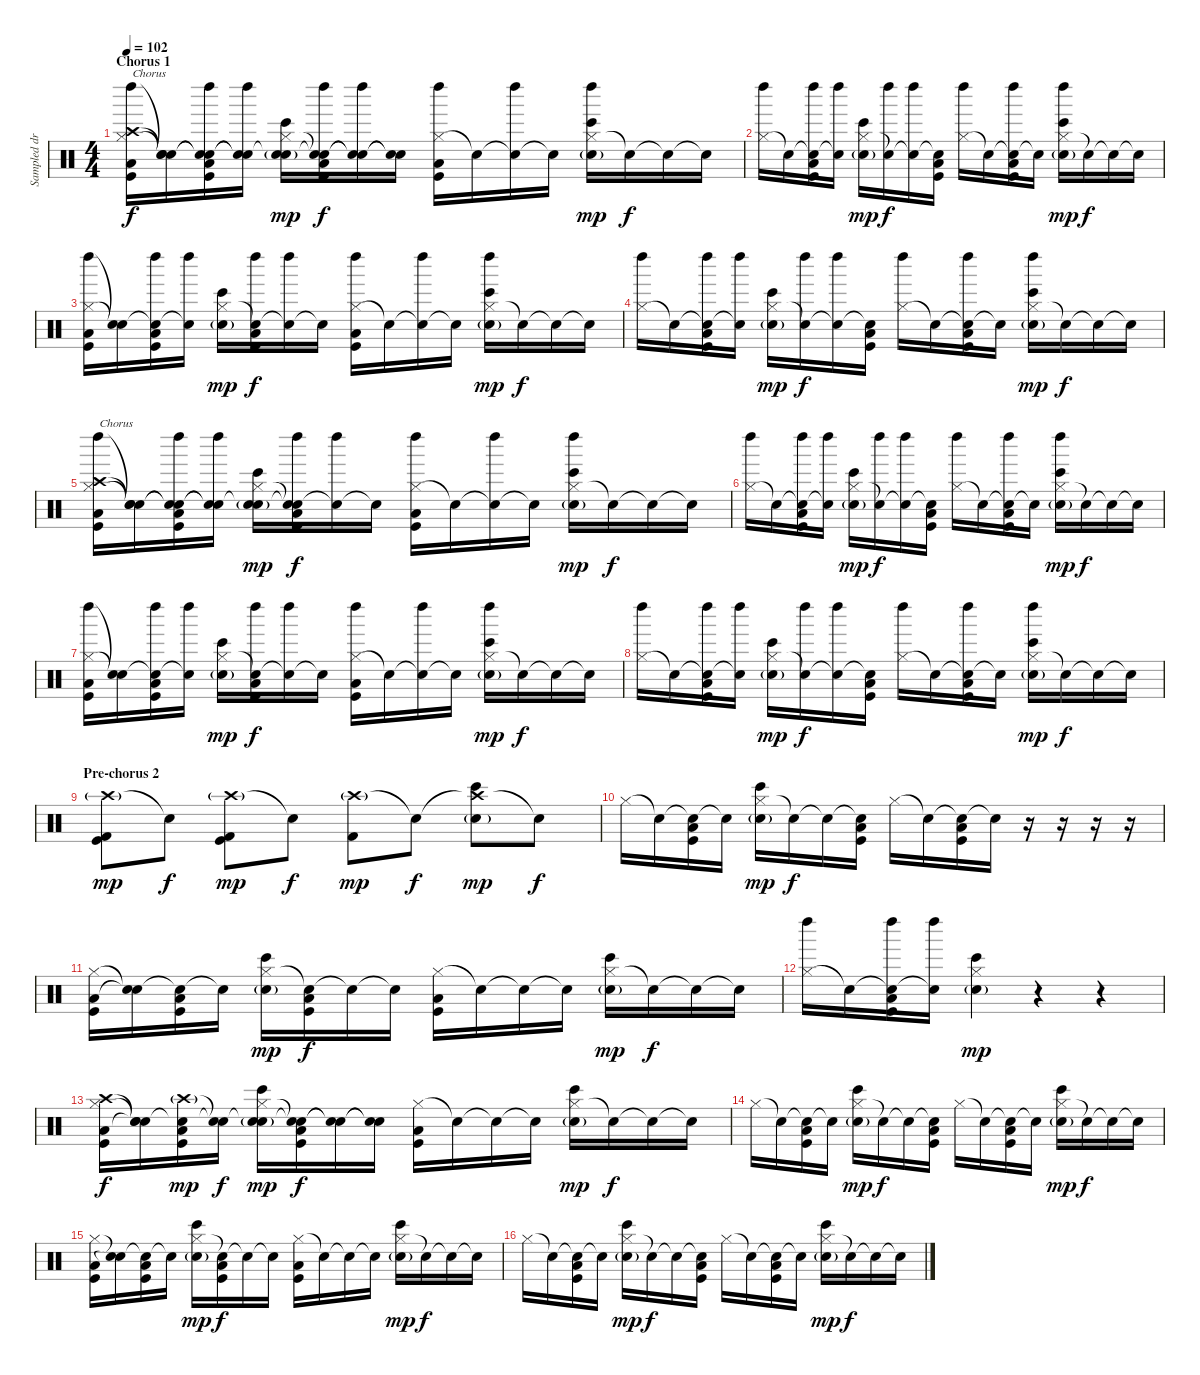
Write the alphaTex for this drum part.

\track ("Sampled drums (Rob and Joe)" "Sampled dr") {instrument percussion}
\staff {score}
\articulation defaults
\ts (4 4)
\section ("" "Chorus 1")
\tempo 102
\clef neutral
\ks c
("Crash high (hit)" "Hi-Hat (closed)" "Left Maraca (hit)" "Low Floor Tom (hit)" "Kick (hit)").16{txt "Chorus" dy f} ("Snare (hit)"{t} "Snare (hit)"{t} "Snare (hit)"{t}).16 ("Snare (hit)"{t} "Snare (hit)"{t} "Left Maraca (hit)" "Low Floor Tom (hit)" "Kick (hit)").16 ("Snare (hit)"{t} "Snare (hit)"{t} "Left Maraca (hit)").16 ("Snare (hit)"{t} "Hi-Hat (closed)" "Bongo High (hit)" "Electric Snare (hit)"{g}).16{dy mp} ("Snare (hit)"{t} "Snare (hit)"{t} "Left Maraca (hit)" "Low Floor Tom (hit)" "Kick (hit)").16{dy f} ("Snare (hit)"{t} "Snare (hit)"{t} "Left Maraca (hit)").16 ("Snare (hit)"{t} "Snare (hit)"{t}).16 ("Hi-Hat (closed)" "Left Maraca (hit)" "Low Floor Tom (hit)" "Kick (hit)").16 "Snare (hit)"{t}.16 ("Snare (hit)"{t} "Left Maraca (hit)").16 "Snare (hit)"{t}.16 ("Hi-Hat (closed)" "Left Maraca (hit)" "Bongo High (hit)" "Electric Snare (hit)"{g}).16{dy mp} "Snare (hit)"{t}.16{dy f} "Snare (hit)"{t}.16 "Snare (hit)"{t}.16 |
("Hi-Hat (closed)" "Left Maraca (hit)").16 "Snare (hit)"{t}.16 ("Snare (hit)"{t} "Left Maraca (hit)" "Low Floor Tom (hit)" "Kick (hit)").16 ("Snare (hit)"{t} "Left Maraca (hit)").16 ("Hi-Hat (closed)" "Bongo High (hit)" "Electric Snare (hit)"{g}).16{dy mp} ("Snare (hit)"{t} "Left Maraca (hit)").16{dy f} ("Snare (hit)"{t} "Left Maraca (hit)").16 ("Snare (hit)"{t} "Low Floor Tom (hit)" "Kick (hit)").16 ("Hi-Hat (closed)" "Left Maraca (hit)").16 "Snare (hit)"{t}.16 ("Snare (hit)"{t} "Left Maraca (hit)" "Low Floor Tom (hit)" "Kick (hit)").16 "Snare (hit)"{t}.16 ("Hi-Hat (closed)" "Left Maraca (hit)" "Bongo High (hit)" "Electric Snare (hit)"{g}).16{dy mp} "Snare (hit)"{t}.16{dy f} "Snare (hit)"{t}.16 "Snare (hit)"{t}.16 |
("Hi-Hat (closed)" "Left Maraca (hit)" "Low Floor Tom (hit)" "Kick (hit)").16 ("Snare (hit)"{t} "Snare (hit)"{t}).16 ("Snare (hit)"{t} "Left Maraca (hit)" "Low Floor Tom (hit)" "Kick (hit)").16 ("Snare (hit)"{t} "Left Maraca (hit)").16 ("Hi-Hat (closed)" "Bongo High (hit)" "Electric Snare (hit)"{g}).16{dy mp} ("Snare (hit)"{t} "Left Maraca (hit)" "Low Floor Tom (hit)" "Kick (hit)").16{dy f} ("Snare (hit)"{t} "Left Maraca (hit)").16 "Snare (hit)"{t}.16 ("Hi-Hat (closed)" "Left Maraca (hit)" "Low Floor Tom (hit)" "Kick (hit)").16 "Snare (hit)"{t}.16 ("Snare (hit)"{t} "Left Maraca (hit)").16 "Snare (hit)"{t}.16 ("Hi-Hat (closed)" "Left Maraca (hit)" "Bongo High (hit)" "Electric Snare (hit)"{g}).16{dy mp} "Snare (hit)"{t}.16{dy f} "Snare (hit)"{t}.16 "Snare (hit)"{t}.16 |
("Hi-Hat (closed)" "Left Maraca (hit)").16 "Snare (hit)"{t}.16 ("Snare (hit)"{t} "Left Maraca (hit)" "Low Floor Tom (hit)" "Kick (hit)").16 ("Snare (hit)"{t} "Left Maraca (hit)").16 ("Hi-Hat (closed)" "Bongo High (hit)" "Electric Snare (hit)"{g}).16{dy mp} ("Snare (hit)"{t} "Left Maraca (hit)").16{dy f} ("Snare (hit)"{t} "Left Maraca (hit)").16 ("Snare (hit)"{t} "Low Floor Tom (hit)" "Kick (hit)").16 ("Hi-Hat (closed)" "Left Maraca (hit)").16 "Snare (hit)"{t}.16 ("Snare (hit)"{t} "Left Maraca (hit)" "Low Floor Tom (hit)" "Kick (hit)").16 "Snare (hit)"{t}.16 ("Hi-Hat (closed)" "Left Maraca (hit)" "Bongo High (hit)" "Electric Snare (hit)"{g}).16{dy mp} "Snare (hit)"{t}.16{dy f} "Snare (hit)"{t}.16 "Snare (hit)"{t}.16 |
("Crash high (hit)" "Hi-Hat (closed)" "Left Maraca (hit)" "Low Floor Tom (hit)" "Kick (hit)").16{txt "Chorus"} ("Snare (hit)"{t} "Snare (hit)"{t} "Snare (hit)"{t}).16 ("Snare (hit)"{t} "Snare (hit)"{t} "Left Maraca (hit)" "Low Floor Tom (hit)" "Kick (hit)").16 ("Snare (hit)"{t} "Snare (hit)"{t} "Left Maraca (hit)").16 ("Snare (hit)"{t} "Hi-Hat (closed)" "Bongo High (hit)" "Electric Snare (hit)"{g}).16{dy mp} ("Snare (hit)"{t} "Snare (hit)"{t} "Left Maraca (hit)" "Low Floor Tom (hit)" "Kick (hit)").16{dy f} ("Snare (hit)"{t} "Left Maraca (hit)").16 "Snare (hit)"{t}.16 ("Hi-Hat (closed)" "Left Maraca (hit)" "Low Floor Tom (hit)" "Kick (hit)").16 "Snare (hit)"{t}.16 ("Snare (hit)"{t} "Left Maraca (hit)").16 "Snare (hit)"{t}.16 ("Hi-Hat (closed)" "Left Maraca (hit)" "Bongo High (hit)" "Electric Snare (hit)"{g}).16{dy mp} "Snare (hit)"{t}.16{dy f} "Snare (hit)"{t}.16 "Snare (hit)"{t}.16 |
("Hi-Hat (closed)" "Left Maraca (hit)").16 "Snare (hit)"{t}.16 ("Snare (hit)"{t} "Left Maraca (hit)" "Low Floor Tom (hit)" "Kick (hit)").16 ("Snare (hit)"{t} "Left Maraca (hit)").16 ("Hi-Hat (closed)" "Bongo High (hit)" "Electric Snare (hit)"{g}).16{dy mp} ("Snare (hit)"{t} "Left Maraca (hit)").16{dy f} ("Snare (hit)"{t} "Left Maraca (hit)").16 ("Snare (hit)"{t} "Low Floor Tom (hit)" "Kick (hit)").16 ("Hi-Hat (closed)" "Left Maraca (hit)").16 "Snare (hit)"{t}.16 ("Snare (hit)"{t} "Left Maraca (hit)" "Low Floor Tom (hit)" "Kick (hit)").16 "Snare (hit)"{t}.16 ("Hi-Hat (closed)" "Left Maraca (hit)" "Bongo High (hit)" "Electric Snare (hit)"{g}).16{dy mp} "Snare (hit)"{t}.16{dy f} "Snare (hit)"{t}.16 "Snare (hit)"{t}.16 |
("Hi-Hat (closed)" "Left Maraca (hit)" "Low Floor Tom (hit)" "Kick (hit)").16 ("Snare (hit)"{t} "Snare (hit)"{t}).16 ("Snare (hit)"{t} "Left Maraca (hit)" "Low Floor Tom (hit)" "Kick (hit)").16 ("Snare (hit)"{t} "Left Maraca (hit)").16 ("Hi-Hat (closed)" "Bongo High (hit)" "Electric Snare (hit)"{g}).16{dy mp} ("Snare (hit)"{t} "Left Maraca (hit)" "Low Floor Tom (hit)" "Kick (hit)").16{dy f} ("Snare (hit)"{t} "Left Maraca (hit)").16 "Snare (hit)"{t}.16 ("Hi-Hat (closed)" "Left Maraca (hit)" "Low Floor Tom (hit)" "Kick (hit)").16 "Snare (hit)"{t}.16 ("Snare (hit)"{t} "Left Maraca (hit)").16 "Snare (hit)"{t}.16 ("Hi-Hat (closed)" "Left Maraca (hit)" "Bongo High (hit)" "Electric Snare (hit)"{g}).16{dy mp} "Snare (hit)"{t}.16{dy f} "Snare (hit)"{t}.16 "Snare (hit)"{t}.16 |
("Hi-Hat (closed)" "Left Maraca (hit)").16 "Snare (hit)"{t}.16 ("Snare (hit)"{t} "Left Maraca (hit)" "Low Floor Tom (hit)" "Kick (hit)").16 ("Snare (hit)"{t} "Left Maraca (hit)").16 ("Hi-Hat (closed)" "Bongo High (hit)" "Electric Snare (hit)"{g}).16{dy mp} ("Snare (hit)"{t} "Left Maraca (hit)").16{dy f} ("Snare (hit)"{t} "Left Maraca (hit)").16 ("Snare (hit)"{t} "Low Floor Tom (hit)" "Kick (hit)").16 ("Hi-Hat (closed)" "Left Maraca (hit)").16 "Snare (hit)"{t}.16 ("Snare (hit)"{t} "Left Maraca (hit)" "Low Floor Tom (hit)" "Kick (hit)").16 "Snare (hit)"{t}.16 ("Hi-Hat (closed)" "Left Maraca (hit)" "Bongo High (hit)" "Electric Snare (hit)"{g}).16{dy mp} "Snare (hit)"{t}.16{dy f} "Snare (hit)"{t}.16 "Snare (hit)"{t}.16 |
\section ("" "Pre-chorus 2")
("Crash high (hit)"{g} "Kick (hit) 2" "Kick (hit)").8{dy mp} "Snare (hit)"{t}.8{dy f} ("Crash high (hit)"{g} "Kick (hit) 2" "Kick (hit)").8{dy mp} "Snare (hit)"{t}.8{dy f} ("Crash high (hit)"{g} "Kick (hit) 2").8{dy mp} "Snare (hit)"{t}.8{dy f} ("Crash high (hit)"{t} "Bongo High (hit)" "Electric Snare (hit)"{g}).8{dy mp} "Snare (hit)"{t}.8{dy f} |
"Hi-Hat (closed)".16 "Snare (hit)"{t}.16 ("Snare (hit)"{t} "Low Floor Tom (hit)" "Kick (hit)").16 "Snare (hit)"{t}.16 ("Hi-Hat (closed)" "Bongo High (hit)" "Electric Snare (hit)"{g}).16{dy mp} "Snare (hit)"{t}.16{dy f} "Snare (hit)"{t}.16 ("Snare (hit)"{t} "Low Floor Tom (hit)" "Kick (hit)").16 "Hi-Hat (closed)".16 "Snare (hit)"{t}.16 ("Snare (hit)"{t} "Low Floor Tom (hit)" "Kick (hit)").16 "Snare (hit)"{t}.16 r.16 r.16 r.16 r.16 |
("Hi-Hat (closed)" "Low Floor Tom (hit)" "Kick (hit)").16 ("Snare (hit)"{t} "Snare (hit)"{t}).16 ("Snare (hit)"{t} "Low Floor Tom (hit)" "Kick (hit)").16 "Snare (hit)"{t}.16 ("Hi-Hat (closed)" "Bongo High (hit)" "Electric Snare (hit)"{g}).16{dy mp} ("Snare (hit)"{t} "Low Floor Tom (hit)" "Kick (hit)").16{dy f} "Snare (hit)"{t}.16 "Snare (hit)"{t}.16 ("Hi-Hat (closed)" "Low Floor Tom (hit)" "Kick (hit)").16 "Snare (hit)"{t}.16 "Snare (hit)"{t}.16 "Snare (hit)"{t}.16 ("Hi-Hat (closed)" "Bongo High (hit)" "Electric Snare (hit)"{g}).16{dy mp} "Snare (hit)"{t}.16{dy f} "Snare (hit)"{t}.16 "Snare (hit)"{t}.16 |
("Hi-Hat (closed)" "Left Maraca (hit)").16 "Snare (hit)"{t}.16 ("Snare (hit)"{t} "Left Maraca (hit)" "Low Floor Tom (hit)" "Kick (hit)").16 ("Snare (hit)"{t} "Left Maraca (hit)").16 ("Hi-Hat (closed)" "Bongo High (hit)" "Electric Snare (hit)"{g}).4{dy mp} r.4 r.4 |
("Crash high (hit)" "Hi-Hat (closed)" "Low Floor Tom (hit)" "Kick (hit)").16{dy f} ("Snare (hit)"{t} "Snare (hit)"{t} "Snare (hit)"{t}).16 ("Crash high (hit)"{g} "Snare (hit)"{t} "Low Floor Tom (hit)" "Kick (hit)").16{dy mp} ("Snare (hit)"{t} "Snare (hit)"{t}).16{dy f} ("Snare (hit)"{t} "Hi-Hat (closed)" "Bongo High (hit)" "Electric Snare (hit)"{g}).16{dy mp} ("Snare (hit)"{t} "Snare (hit)"{t} "Low Floor Tom (hit)" "Kick (hit)").16{dy f} ("Snare (hit)"{t} "Snare (hit)"{t}).16 ("Snare (hit)"{t} "Snare (hit)"{t}).16 ("Hi-Hat (closed)" "Low Floor Tom (hit)" "Kick (hit)").16 "Snare (hit)"{t}.16 "Snare (hit)"{t}.16 "Snare (hit)"{t}.16 ("Hi-Hat (closed)" "Bongo High (hit)" "Electric Snare (hit)"{g}).16{dy mp} "Snare (hit)"{t}.16{dy f} "Snare (hit)"{t}.16 "Snare (hit)"{t}.16 |
"Hi-Hat (closed)".16 "Snare (hit)"{t}.16 ("Snare (hit)"{t} "Low Floor Tom (hit)" "Kick (hit)").16 "Snare (hit)"{t}.16 ("Hi-Hat (closed)" "Bongo High (hit)" "Electric Snare (hit)"{g}).16{dy mp} "Snare (hit)"{t}.16{dy f} "Snare (hit)"{t}.16 ("Snare (hit)"{t} "Low Floor Tom (hit)" "Kick (hit)").16 "Hi-Hat (closed)".16 "Snare (hit)"{t}.16 ("Snare (hit)"{t} "Low Floor Tom (hit)" "Kick (hit)").16 "Snare (hit)"{t}.16 ("Hi-Hat (closed)" "Bongo High (hit)" "Electric Snare (hit)"{g}).16{dy mp} "Snare (hit)"{t}.16{dy f} "Snare (hit)"{t}.16 "Snare (hit)"{t}.16 |
("Hi-Hat (closed)" "Low Floor Tom (hit)" "Kick (hit)").16 ("Snare (hit)"{t} "Snare (hit)"{t}).16 ("Snare (hit)"{t} "Low Floor Tom (hit)" "Kick (hit)").16 "Snare (hit)"{t}.16 ("Hi-Hat (closed)" "Bongo High (hit)" "Electric Snare (hit)"{g}).16{dy mp} ("Snare (hit)"{t} "Low Floor Tom (hit)" "Kick (hit)").16{dy f} "Snare (hit)"{t}.16 "Snare (hit)"{t}.16 ("Hi-Hat (closed)" "Low Floor Tom (hit)" "Kick (hit)").16 "Snare (hit)"{t}.16 "Snare (hit)"{t}.16 "Snare (hit)"{t}.16 ("Hi-Hat (closed)" "Bongo High (hit)" "Electric Snare (hit)"{g}).16{dy mp} "Snare (hit)"{t}.16{dy f} "Snare (hit)"{t}.16 "Snare (hit)"{t}.16 |
"Hi-Hat (closed)".16 "Snare (hit)"{t}.16 ("Snare (hit)"{t} "Low Floor Tom (hit)" "Kick (hit)").16 "Snare (hit)"{t}.16 ("Hi-Hat (closed)" "Bongo High (hit)" "Electric Snare (hit)"{g}).16{dy mp} "Snare (hit)"{t}.16{dy f} "Snare (hit)"{t}.16 ("Snare (hit)"{t} "Low Floor Tom (hit)" "Kick (hit)").16 "Hi-Hat (closed)".16 "Snare (hit)"{t}.16 ("Snare (hit)"{t} "Low Floor Tom (hit)" "Kick (hit)").16 "Snare (hit)"{t}.16 ("Hi-Hat (closed)" "Bongo High (hit)" "Electric Snare (hit)"{g}).16{dy mp} "Snare (hit)"{t}.16{dy f} "Snare (hit)"{t}.16 "Snare (hit)"{t}.16
